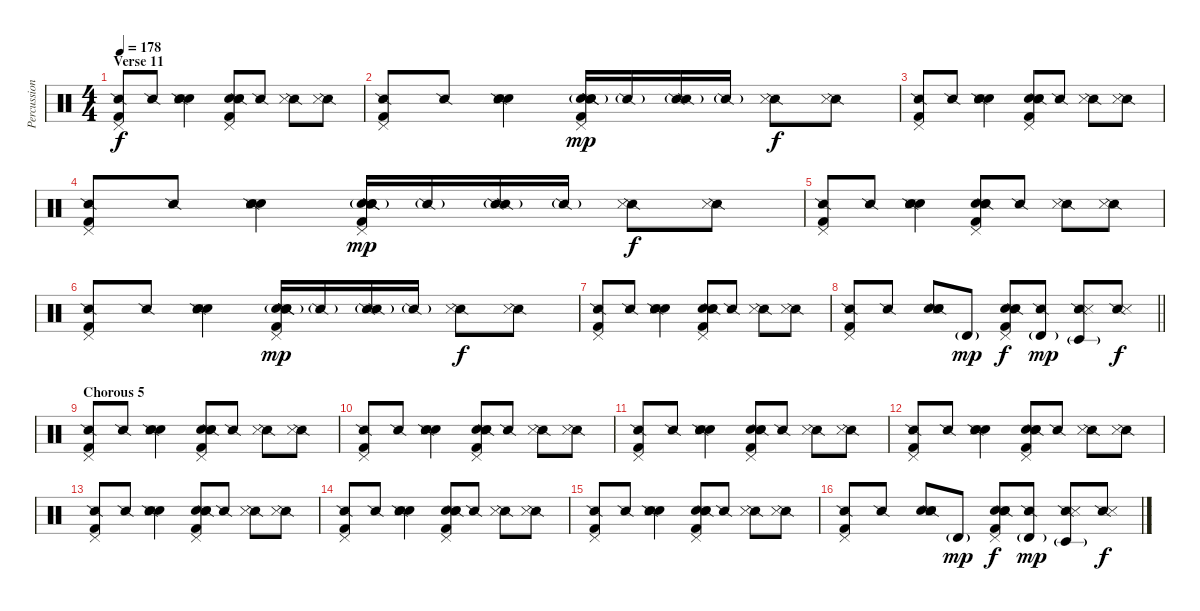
\track ("Percussion" "Percussion") {instrument percussion}
\staff {score}
\articulation defaults
\ts (4 4)
\section ("" "Verse 11")
\tempo 178
\clef neutral
\ks c
("Pedal Hi-Hat (hit)" "Kick (hit) 2" "Snare (side stick) 2").8{dy f} "Snare (side stick) 2".8 ("Hand Clap (hit)" "Hand Clap (hit)" "Snare (side stick) 2" "Metronome (hit)").4 ("Pedal Hi-Hat (hit)" "Hand Clap (hit)" "Hand Clap (hit)" "Kick (hit) 2" "Snare (side stick) 2").8 "Snare (side stick) 2".8 ("Snare (side stick) 2" "Metronome (hit)").8 ("Snare (side stick) 2" "Metronome (hit)").8 |
("Pedal Hi-Hat (hit)" "Kick (hit) 2" "Snare (side stick) 2").8 "Snare (side stick) 2".8 ("Hand Clap (hit)" "Hand Clap (hit)" "Snare (side stick) 2" "Metronome (hit)").4 ("Pedal Hi-Hat (hit)" "Hand Clap (hit)" "Hand Clap (hit)" "Kick (hit) 2" "Snare (side stick) 2" "Snare (side stick) 2"{g}).16{dy mp} "Snare (side stick) 2"{g}.16 ("Snare (side stick) 2" "Snare (side stick) 2"{g}).16 "Snare (side stick) 2"{g}.16 ("Snare (side stick) 2" "Metronome (hit)").8{dy f} ("Snare (side stick) 2" "Metronome (hit)").8 |
("Pedal Hi-Hat (hit)" "Kick (hit) 2" "Snare (side stick) 2").8 "Snare (side stick) 2".8 ("Hand Clap (hit)" "Hand Clap (hit)" "Snare (side stick) 2" "Metronome (hit)").4 ("Pedal Hi-Hat (hit)" "Hand Clap (hit)" "Hand Clap (hit)" "Kick (hit) 2" "Snare (side stick) 2").8 "Snare (side stick) 2".8 ("Snare (side stick) 2" "Metronome (hit)").8 ("Snare (side stick) 2" "Metronome (hit)").8 |
("Pedal Hi-Hat (hit)" "Kick (hit) 2" "Snare (side stick) 2").8 "Snare (side stick) 2".8 ("Hand Clap (hit)" "Hand Clap (hit)" "Snare (side stick) 2" "Metronome (hit)").4 ("Pedal Hi-Hat (hit)" "Hand Clap (hit)" "Hand Clap (hit)" "Kick (hit) 2" "Snare (side stick) 2" "Snare (side stick) 2"{g}).16{dy mp} "Snare (side stick) 2"{g}.16 ("Snare (side stick) 2" "Snare (side stick) 2"{g}).16 "Snare (side stick) 2"{g}.16 ("Snare (side stick) 2" "Metronome (hit)").8{dy f} ("Snare (side stick) 2" "Metronome (hit)").8 |
("Pedal Hi-Hat (hit)" "Kick (hit) 2" "Snare (side stick) 2").8 "Snare (side stick) 2".8 ("Hand Clap (hit)" "Hand Clap (hit)" "Snare (side stick) 2" "Metronome (hit)").4 ("Pedal Hi-Hat (hit)" "Hand Clap (hit)" "Hand Clap (hit)" "Kick (hit) 2" "Snare (side stick) 2").8 "Snare (side stick) 2".8 ("Snare (side stick) 2" "Metronome (hit)").8 ("Snare (side stick) 2" "Metronome (hit)").8 |
("Pedal Hi-Hat (hit)" "Kick (hit) 2" "Snare (side stick) 2").8 "Snare (side stick) 2".8 ("Hand Clap (hit)" "Hand Clap (hit)" "Snare (side stick) 2" "Metronome (hit)").4 ("Pedal Hi-Hat (hit)" "Hand Clap (hit)" "Hand Clap (hit)" "Kick (hit) 2" "Snare (side stick) 2" "Snare (side stick) 2"{g}).16{dy mp} "Snare (side stick) 2"{g}.16 ("Snare (side stick) 2" "Snare (side stick) 2"{g}).16 "Snare (side stick) 2"{g}.16 ("Snare (side stick) 2" "Metronome (hit)").8{dy f} ("Snare (side stick) 2" "Metronome (hit)").8 |
("Pedal Hi-Hat (hit)" "Kick (hit) 2" "Snare (side stick) 2").8 "Snare (side stick) 2".8 ("Hand Clap (hit)" "Hand Clap (hit)" "Snare (side stick) 2" "Metronome (hit)").4 ("Pedal Hi-Hat (hit)" "Hand Clap (hit)" "Hand Clap (hit)" "Kick (hit) 2" "Snare (side stick) 2").8 "Snare (side stick) 2".8 ("Snare (side stick) 2" "Metronome (hit)").8 ("Snare (side stick) 2" "Metronome (hit)").8 |
\barLineRight lightlight
("Pedal Hi-Hat (hit)" "Kick (hit) 2" "Snare (side stick) 2").8 "Snare (side stick) 2".8 ("Hand Clap (hit)" "Hand Clap (hit)" "Snare (side stick) 2" "Metronome (hit)").8 "Timbale high (hit)"{g}.8{dy mp} ("Pedal Hi-Hat (hit)" "Hand Clap (hit)" "Hand Clap (hit)" "Kick (hit) 2" "Snare (side stick) 2").8{dy f} ("Timbale high (hit)"{g} "Snare (side stick) 2").8{dy mp} ("Timbale low (hit)"{g} "Snare (side stick) 2" "Metronome (hit)").8 ("Snare (side stick) 2" "Metronome (hit)").8{dy f} |
\section ("" "Chorous 5")
("Pedal Hi-Hat (hit)" "Kick (hit) 2" "Snare (side stick) 2").8 "Snare (side stick) 2".8 ("Hand Clap (hit)" "Hand Clap (hit)" "Snare (side stick) 2" "Metronome (hit)").4 ("Pedal Hi-Hat (hit)" "Hand Clap (hit)" "Hand Clap (hit)" "Kick (hit) 2" "Snare (side stick) 2").8 "Snare (side stick) 2".8 ("Snare (side stick) 2" "Metronome (hit)").8 ("Snare (side stick) 2" "Metronome (hit)").8 |
("Pedal Hi-Hat (hit)" "Kick (hit) 2" "Snare (side stick) 2").8 "Snare (side stick) 2".8 ("Hand Clap (hit)" "Hand Clap (hit)" "Snare (side stick) 2" "Metronome (hit)").4 ("Pedal Hi-Hat (hit)" "Hand Clap (hit)" "Hand Clap (hit)" "Kick (hit) 2" "Snare (side stick) 2").8 "Snare (side stick) 2".8 ("Snare (side stick) 2" "Metronome (hit)").8 ("Snare (side stick) 2" "Metronome (hit)").8 |
("Pedal Hi-Hat (hit)" "Kick (hit) 2" "Snare (side stick) 2").8 "Snare (side stick) 2".8 ("Hand Clap (hit)" "Hand Clap (hit)" "Snare (side stick) 2" "Metronome (hit)").4 ("Pedal Hi-Hat (hit)" "Hand Clap (hit)" "Hand Clap (hit)" "Kick (hit) 2" "Snare (side stick) 2").8 "Snare (side stick) 2".8 ("Snare (side stick) 2" "Metronome (hit)").8 ("Snare (side stick) 2" "Metronome (hit)").8 |
("Pedal Hi-Hat (hit)" "Kick (hit) 2" "Snare (side stick) 2").8 "Snare (side stick) 2".8 ("Hand Clap (hit)" "Hand Clap (hit)" "Snare (side stick) 2" "Metronome (hit)").4 ("Pedal Hi-Hat (hit)" "Hand Clap (hit)" "Hand Clap (hit)" "Kick (hit) 2" "Snare (side stick) 2").8 "Snare (side stick) 2".8 ("Snare (side stick) 2" "Metronome (hit)").8 ("Snare (side stick) 2" "Metronome (hit)").8 |
("Pedal Hi-Hat (hit)" "Kick (hit) 2" "Snare (side stick) 2").8 "Snare (side stick) 2".8 ("Hand Clap (hit)" "Hand Clap (hit)" "Snare (side stick) 2" "Metronome (hit)").4 ("Pedal Hi-Hat (hit)" "Hand Clap (hit)" "Hand Clap (hit)" "Kick (hit) 2" "Snare (side stick) 2").8 "Snare (side stick) 2".8 ("Snare (side stick) 2" "Metronome (hit)").8 ("Snare (side stick) 2" "Metronome (hit)").8 |
("Pedal Hi-Hat (hit)" "Kick (hit) 2" "Snare (side stick) 2").8 "Snare (side stick) 2".8 ("Hand Clap (hit)" "Hand Clap (hit)" "Snare (side stick) 2" "Metronome (hit)").4 ("Pedal Hi-Hat (hit)" "Hand Clap (hit)" "Hand Clap (hit)" "Kick (hit) 2" "Snare (side stick) 2").8 "Snare (side stick) 2".8 ("Snare (side stick) 2" "Metronome (hit)").8 ("Snare (side stick) 2" "Metronome (hit)").8 |
("Pedal Hi-Hat (hit)" "Kick (hit) 2" "Snare (side stick) 2").8 "Snare (side stick) 2".8 ("Hand Clap (hit)" "Hand Clap (hit)" "Snare (side stick) 2" "Metronome (hit)").4 ("Pedal Hi-Hat (hit)" "Hand Clap (hit)" "Hand Clap (hit)" "Kick (hit) 2" "Snare (side stick) 2").8 "Snare (side stick) 2".8 ("Snare (side stick) 2" "Metronome (hit)").8 ("Snare (side stick) 2" "Metronome (hit)").8 |
("Pedal Hi-Hat (hit)" "Kick (hit) 2" "Snare (side stick) 2").8 "Snare (side stick) 2".8 ("Hand Clap (hit)" "Hand Clap (hit)" "Snare (side stick) 2" "Metronome (hit)").8 "Timbale high (hit)"{g}.8{dy mp} ("Pedal Hi-Hat (hit)" "Hand Clap (hit)" "Hand Clap (hit)" "Kick (hit) 2" "Snare (side stick) 2").8{dy f} ("Timbale high (hit)"{g} "Snare (side stick) 2").8{dy mp} ("Timbale low (hit)"{g} "Snare (side stick) 2" "Metronome (hit)").8 ("Snare (side stick) 2" "Metronome (hit)").8{dy f}
